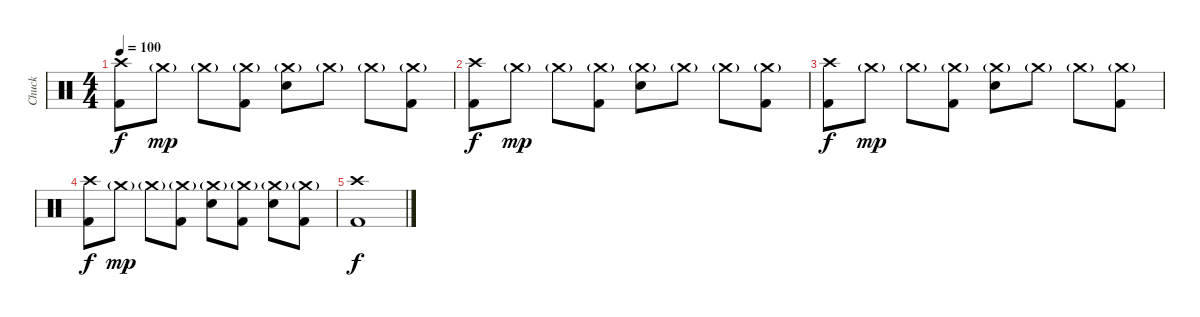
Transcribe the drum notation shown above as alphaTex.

\track ("Chuck" "Chuck") {instrument percussion}
\staff {score}
\articulation defaults
\ts (4 4)
\tempo 100
\clef neutral
\ks c
("Crash high (hit)" "Kick (hit) 2").8{dy f} "Crash medium (hit)"{g}.8{dy mp} "Crash medium (hit)"{g}.8 ("Crash medium (hit)"{g} "Kick (hit) 2").8 ("Crash medium (hit)"{g} "Electric Snare (hit)").8 "Crash medium (hit)"{g}.8 "Crash medium (hit)"{g}.8 ("Crash medium (hit)"{g} "Kick (hit) 2").8 |
("Crash high (hit)" "Kick (hit) 2").8{dy f} "Crash medium (hit)"{g}.8{dy mp} "Crash medium (hit)"{g}.8 ("Crash medium (hit)"{g} "Kick (hit) 2").8 ("Crash medium (hit)"{g} "Electric Snare (hit)").8 "Crash medium (hit)"{g}.8 "Crash medium (hit)"{g}.8 ("Crash medium (hit)"{g} "Kick (hit) 2").8 |
("Crash high (hit)" "Kick (hit) 2").8{dy f} "Crash medium (hit)"{g}.8{dy mp} "Crash medium (hit)"{g}.8 ("Crash medium (hit)"{g} "Kick (hit) 2").8 ("Crash medium (hit)"{g} "Electric Snare (hit)").8 "Crash medium (hit)"{g}.8 "Crash medium (hit)"{g}.8 ("Crash medium (hit)"{g} "Kick (hit) 2").8 |
("Crash high (hit)" "Kick (hit) 2").8{dy f} "Crash medium (hit)"{g}.8{dy mp} "Crash medium (hit)"{g}.8 ("Crash medium (hit)"{g} "Kick (hit) 2").8 ("Crash medium (hit)"{g} "Electric Snare (hit)").8 ("Crash medium (hit)"{g} "Kick (hit) 2").8 ("Crash medium (hit)"{g} "Electric Snare (hit)").8 ("Crash medium (hit)"{g} "Kick (hit) 2").8 |
("Crash high (hit)" "Kick (hit) 2").1{dy f}
